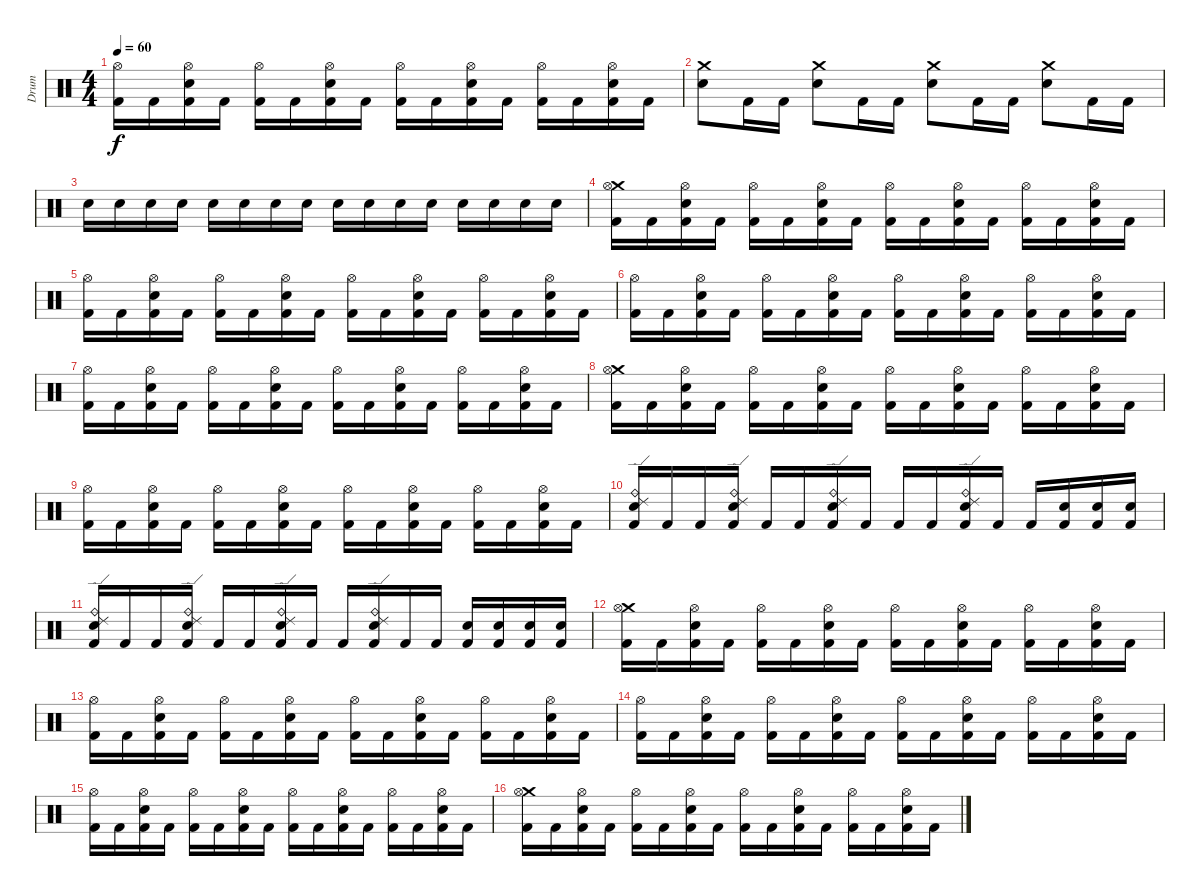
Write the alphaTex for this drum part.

\track ("Drum" "Drum") {instrument percussion}
\staff {score}
\articulation defaults
\ts (4 4)
\tempo 60
\clef neutral
\ks c
("Hi-Hat (open)" "Kick (hit) 2").16{dy f} "Kick (hit) 2".16 ("Electric Snare (hit)" "Hi-Hat (open)" "Kick (hit) 2").16 "Kick (hit) 2".16 ("Hi-Hat (open)" "Kick (hit) 2").16 "Kick (hit) 2".16 ("Electric Snare (hit)" "Hi-Hat (open)" "Kick (hit) 2").16 "Kick (hit) 2".16 ("Hi-Hat (open)" "Kick (hit) 2").16 "Kick (hit) 2".16 ("Electric Snare (hit)" "Hi-Hat (open)" "Kick (hit) 2").16 "Kick (hit) 2".16 ("Hi-Hat (open)" "Kick (hit) 2").16 "Kick (hit) 2".16 ("Electric Snare (hit)" "Hi-Hat (open)" "Kick (hit) 2").16 "Kick (hit) 2".16 |
("Electric Snare (hit)" "Crash medium (hit)").8 "Kick (hit) 2".16 "Kick (hit) 2".16 ("Electric Snare (hit)" "Crash medium (hit)").8 "Kick (hit) 2".16 "Kick (hit) 2".16 ("Electric Snare (hit)" "Crash medium (hit)").8 "Kick (hit) 2".16 "Kick (hit) 2".16 ("Electric Snare (hit)" "Crash medium (hit)").8 "Kick (hit) 2".16 "Kick (hit) 2".16 |
"Electric Snare (hit)".16 "Electric Snare (hit)".16 "Electric Snare (hit)".16 "Electric Snare (hit)".16 "Electric Snare (hit)".16 "Electric Snare (hit)".16 "Electric Snare (hit)".16 "Electric Snare (hit)".16 "Electric Snare (hit)".16 "Electric Snare (hit)".16 "Electric Snare (hit)".16 "Electric Snare (hit)".16 "Electric Snare (hit)".16 "Electric Snare (hit)".16 "Electric Snare (hit)".16 "Electric Snare (hit)".16 |
("Crash medium (hit)" "Hi-Hat (open)" "Kick (hit) 2").16 "Kick (hit) 2".16 ("Electric Snare (hit)" "Hi-Hat (open)" "Kick (hit) 2").16 "Kick (hit) 2".16 ("Hi-Hat (open)" "Kick (hit) 2").16 "Kick (hit) 2".16 ("Electric Snare (hit)" "Hi-Hat (open)" "Kick (hit) 2").16 "Kick (hit) 2".16 ("Hi-Hat (open)" "Kick (hit) 2").16 "Kick (hit) 2".16 ("Electric Snare (hit)" "Hi-Hat (open)" "Kick (hit) 2").16 "Kick (hit) 2".16 ("Hi-Hat (open)" "Kick (hit) 2").16 "Kick (hit) 2".16 ("Electric Snare (hit)" "Hi-Hat (open)" "Kick (hit) 2").16 "Kick (hit) 2".16 |
("Hi-Hat (open)" "Kick (hit) 2").16 "Kick (hit) 2".16 ("Electric Snare (hit)" "Hi-Hat (open)" "Kick (hit) 2").16 "Kick (hit) 2".16 ("Hi-Hat (open)" "Kick (hit) 2").16 "Kick (hit) 2".16 ("Electric Snare (hit)" "Hi-Hat (open)" "Kick (hit) 2").16 "Kick (hit) 2".16 ("Hi-Hat (open)" "Kick (hit) 2").16 "Kick (hit) 2".16 ("Electric Snare (hit)" "Hi-Hat (open)" "Kick (hit) 2").16 "Kick (hit) 2".16 ("Hi-Hat (open)" "Kick (hit) 2").16 "Kick (hit) 2".16 ("Electric Snare (hit)" "Hi-Hat (open)" "Kick (hit) 2").16 "Kick (hit) 2".16 |
("Hi-Hat (open)" "Kick (hit) 2").16 "Kick (hit) 2".16 ("Electric Snare (hit)" "Hi-Hat (open)" "Kick (hit) 2").16 "Kick (hit) 2".16 ("Hi-Hat (open)" "Kick (hit) 2").16 "Kick (hit) 2".16 ("Electric Snare (hit)" "Hi-Hat (open)" "Kick (hit) 2").16 "Kick (hit) 2".16 ("Hi-Hat (open)" "Kick (hit) 2").16 "Kick (hit) 2".16 ("Electric Snare (hit)" "Hi-Hat (open)" "Kick (hit) 2").16 "Kick (hit) 2".16 ("Hi-Hat (open)" "Kick (hit) 2").16 "Kick (hit) 2".16 ("Electric Snare (hit)" "Hi-Hat (open)" "Kick (hit) 2").16 "Kick (hit) 2".16 |
("Hi-Hat (open)" "Kick (hit) 2").16 "Kick (hit) 2".16 ("Electric Snare (hit)" "Hi-Hat (open)" "Kick (hit) 2").16 "Kick (hit) 2".16 ("Hi-Hat (open)" "Kick (hit) 2").16 "Kick (hit) 2".16 ("Electric Snare (hit)" "Hi-Hat (open)" "Kick (hit) 2").16 "Kick (hit) 2".16 ("Hi-Hat (open)" "Kick (hit) 2").16 "Kick (hit) 2".16 ("Electric Snare (hit)" "Hi-Hat (open)" "Kick (hit) 2").16 "Kick (hit) 2".16 ("Hi-Hat (open)" "Kick (hit) 2").16 "Kick (hit) 2".16 ("Electric Snare (hit)" "Hi-Hat (open)" "Kick (hit) 2").16 "Kick (hit) 2".16 |
("Crash medium (hit)" "Hi-Hat (open)" "Kick (hit) 2").16 "Kick (hit) 2".16 ("Electric Snare (hit)" "Hi-Hat (open)" "Kick (hit) 2").16 "Kick (hit) 2".16 ("Hi-Hat (open)" "Kick (hit) 2").16 "Kick (hit) 2".16 ("Electric Snare (hit)" "Hi-Hat (open)" "Kick (hit) 2").16 "Kick (hit) 2".16 ("Hi-Hat (open)" "Kick (hit) 2").16 "Kick (hit) 2".16 ("Electric Snare (hit)" "Hi-Hat (open)" "Kick (hit) 2").16 "Kick (hit) 2".16 ("Hi-Hat (open)" "Kick (hit) 2").16 "Kick (hit) 2".16 ("Electric Snare (hit)" "Hi-Hat (open)" "Kick (hit) 2").16 "Kick (hit) 2".16 |
("Hi-Hat (open)" "Kick (hit) 2").16 "Kick (hit) 2".16 ("Electric Snare (hit)" "Hi-Hat (open)" "Kick (hit) 2").16 "Kick (hit) 2".16 ("Hi-Hat (open)" "Kick (hit) 2").16 "Kick (hit) 2".16 ("Electric Snare (hit)" "Hi-Hat (open)" "Kick (hit) 2").16 "Kick (hit) 2".16 ("Hi-Hat (open)" "Kick (hit) 2").16 "Kick (hit) 2".16 ("Electric Snare (hit)" "Hi-Hat (open)" "Kick (hit) 2").16 "Kick (hit) 2".16 ("Hi-Hat (open)" "Kick (hit) 2").16 "Kick (hit) 2".16 ("Electric Snare (hit)" "Hi-Hat (open)" "Kick (hit) 2").16 "Kick (hit) 2".16 |
("Electric Snare (hit)" "Ride (bell)" "Ride (edge) 2" "Kick (hit) 2").16 "Kick (hit) 2".16 "Kick (hit) 2".16 ("Electric Snare (hit)" "Ride (bell)" "Ride (edge) 2" "Kick (hit) 2").16 "Kick (hit) 2".16 "Kick (hit) 2".16 ("Electric Snare (hit)" "Ride (bell)" "Ride (edge) 2" "Kick (hit) 2").16 "Kick (hit) 2".16 "Kick (hit) 2".16 "Kick (hit) 2".16 ("Electric Snare (hit)" "Ride (bell)" "Ride (edge) 2" "Kick (hit) 2").16 "Kick (hit) 2".16 "Kick (hit) 2".16 ("Electric Snare (hit)" "Kick (hit) 2").16 ("Electric Snare (hit)" "Kick (hit) 2").16 ("Electric Snare (hit)" "Kick (hit) 2").16 |
("Ride (bell)" "Electric Snare (hit)" "Ride (edge) 2" "Kick (hit) 2").16 "Kick (hit) 2".16 "Kick (hit) 2".16 ("Ride (bell)" "Electric Snare (hit)" "Ride (edge) 2" "Kick (hit) 2").16 "Kick (hit) 2".16 "Kick (hit) 2".16 ("Ride (bell)" "Electric Snare (hit)" "Ride (edge) 2" "Kick (hit) 2").16 "Kick (hit) 2".16 "Kick (hit) 2".16 ("Ride (bell)" "Electric Snare (hit)" "Ride (edge) 2" "Kick (hit) 2").16 "Kick (hit) 2".16 "Kick (hit) 2".16 ("Electric Snare (hit)" "Kick (hit) 2").16 ("Electric Snare (hit)" "Kick (hit) 2").16 ("Electric Snare (hit)" "Kick (hit) 2").16 ("Electric Snare (hit)" "Kick (hit) 2").16 |
("Crash medium (hit)" "Hi-Hat (open)" "Kick (hit) 2").16 "Kick (hit) 2".16 ("Electric Snare (hit)" "Hi-Hat (open)" "Kick (hit) 2").16 "Kick (hit) 2".16 ("Hi-Hat (open)" "Kick (hit) 2").16 "Kick (hit) 2".16 ("Electric Snare (hit)" "Hi-Hat (open)" "Kick (hit) 2").16 "Kick (hit) 2".16 ("Hi-Hat (open)" "Kick (hit) 2").16 "Kick (hit) 2".16 ("Electric Snare (hit)" "Hi-Hat (open)" "Kick (hit) 2").16 "Kick (hit) 2".16 ("Hi-Hat (open)" "Kick (hit) 2").16 "Kick (hit) 2".16 ("Electric Snare (hit)" "Hi-Hat (open)" "Kick (hit) 2").16 "Kick (hit) 2".16 |
("Hi-Hat (open)" "Kick (hit) 2").16 "Kick (hit) 2".16 ("Electric Snare (hit)" "Hi-Hat (open)" "Kick (hit) 2").16 "Kick (hit) 2".16 ("Hi-Hat (open)" "Kick (hit) 2").16 "Kick (hit) 2".16 ("Electric Snare (hit)" "Hi-Hat (open)" "Kick (hit) 2").16 "Kick (hit) 2".16 ("Hi-Hat (open)" "Kick (hit) 2").16 "Kick (hit) 2".16 ("Electric Snare (hit)" "Hi-Hat (open)" "Kick (hit) 2").16 "Kick (hit) 2".16 ("Hi-Hat (open)" "Kick (hit) 2").16 "Kick (hit) 2".16 ("Electric Snare (hit)" "Hi-Hat (open)" "Kick (hit) 2").16 "Kick (hit) 2".16 |
("Hi-Hat (open)" "Kick (hit) 2").16 "Kick (hit) 2".16 ("Electric Snare (hit)" "Hi-Hat (open)" "Kick (hit) 2").16 "Kick (hit) 2".16 ("Hi-Hat (open)" "Kick (hit) 2").16 "Kick (hit) 2".16 ("Electric Snare (hit)" "Hi-Hat (open)" "Kick (hit) 2").16 "Kick (hit) 2".16 ("Hi-Hat (open)" "Kick (hit) 2").16 "Kick (hit) 2".16 ("Electric Snare (hit)" "Hi-Hat (open)" "Kick (hit) 2").16 "Kick (hit) 2".16 ("Hi-Hat (open)" "Kick (hit) 2").16 "Kick (hit) 2".16 ("Electric Snare (hit)" "Hi-Hat (open)" "Kick (hit) 2").16 "Kick (hit) 2".16 |
("Hi-Hat (open)" "Kick (hit) 2").16 "Kick (hit) 2".16 ("Electric Snare (hit)" "Hi-Hat (open)" "Kick (hit) 2").16 "Kick (hit) 2".16 ("Hi-Hat (open)" "Kick (hit) 2").16 "Kick (hit) 2".16 ("Electric Snare (hit)" "Hi-Hat (open)" "Kick (hit) 2").16 "Kick (hit) 2".16 ("Hi-Hat (open)" "Kick (hit) 2").16 "Kick (hit) 2".16 ("Electric Snare (hit)" "Hi-Hat (open)" "Kick (hit) 2").16 "Kick (hit) 2".16 ("Hi-Hat (open)" "Kick (hit) 2").16 "Kick (hit) 2".16 ("Electric Snare (hit)" "Hi-Hat (open)" "Kick (hit) 2").16 "Kick (hit) 2".16 |
("Crash medium (hit)" "Hi-Hat (open)" "Kick (hit) 2").16 "Kick (hit) 2".16 ("Electric Snare (hit)" "Hi-Hat (open)" "Kick (hit) 2").16 "Kick (hit) 2".16 ("Hi-Hat (open)" "Kick (hit) 2").16 "Kick (hit) 2".16 ("Electric Snare (hit)" "Hi-Hat (open)" "Kick (hit) 2").16 "Kick (hit) 2".16 ("Hi-Hat (open)" "Kick (hit) 2").16 "Kick (hit) 2".16 ("Electric Snare (hit)" "Hi-Hat (open)" "Kick (hit) 2").16 "Kick (hit) 2".16 ("Hi-Hat (open)" "Kick (hit) 2").16 "Kick (hit) 2".16 ("Electric Snare (hit)" "Hi-Hat (open)" "Kick (hit) 2").16 "Kick (hit) 2".16
